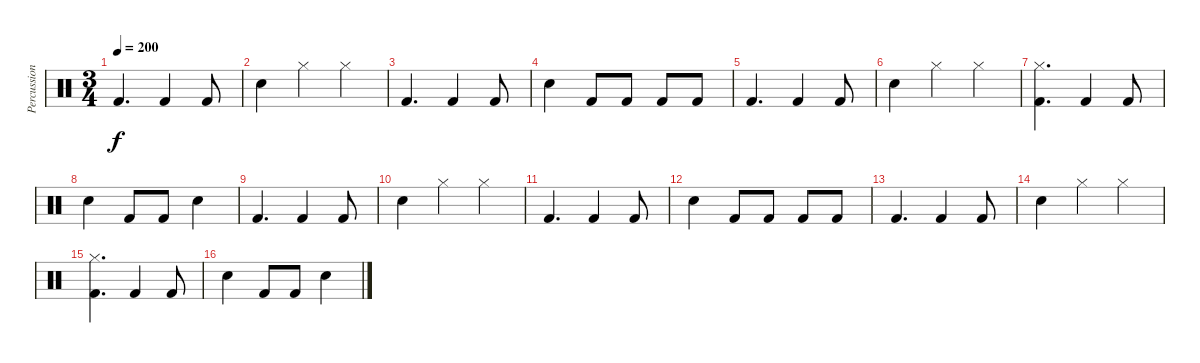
\track ("Percussion" "Percussion") {instrument percussion}
\staff {score}
\articulation defaults
\ts (3 4)
\tempo 200
\clef neutral
\ks c "Kick (hit) 2".4{d dy f} "Kick (hit) 2".4 "Kick (hit) 2".8
|
"Snare (hit) 2".4 "Hi-Hat (closed)".4 "Hi-Hat (closed)".4 |
"Kick (hit) 2".4{d} "Kick (hit) 2".4 "Kick (hit) 2".8 |
"Snare (hit) 2".4 "Kick (hit) 2".8 "Kick (hit) 2".8 "Kick (hit) 2".8 "Kick (hit) 2".8 |
"Kick (hit) 2".4{d} "Kick (hit) 2".4 "Kick (hit) 2".8 |
"Snare (hit) 2".4 "Hi-Hat (closed)".4 "Hi-Hat (closed)".4 |
("Hi-Hat (closed)" "Kick (hit) 2").4{d} "Kick (hit) 2".4 "Kick (hit) 2".8 |
"Snare (hit) 2".4 "Kick (hit) 2".8 "Kick (hit) 2".8 "Snare (hit) 2".4 |
"Kick (hit) 2".4{d} "Kick (hit) 2".4 "Kick (hit) 2".8 |
"Snare (hit) 2".4 "Hi-Hat (closed)".4 "Hi-Hat (closed)".4 |
"Kick (hit) 2".4{d} "Kick (hit) 2".4 "Kick (hit) 2".8 |
"Snare (hit) 2".4 "Kick (hit) 2".8 "Kick (hit) 2".8 "Kick (hit) 2".8 "Kick (hit) 2".8 |
"Kick (hit) 2".4{d} "Kick (hit) 2".4 "Kick (hit) 2".8 |
"Snare (hit) 2".4 "Hi-Hat (closed)".4 "Hi-Hat (closed)".4 |
("Hi-Hat (closed)" "Kick (hit) 2").4{d} "Kick (hit) 2".4 "Kick (hit) 2".8 |
"Snare (hit) 2".4 "Kick (hit) 2".8 "Kick (hit) 2".8 "Snare (hit) 2".4
